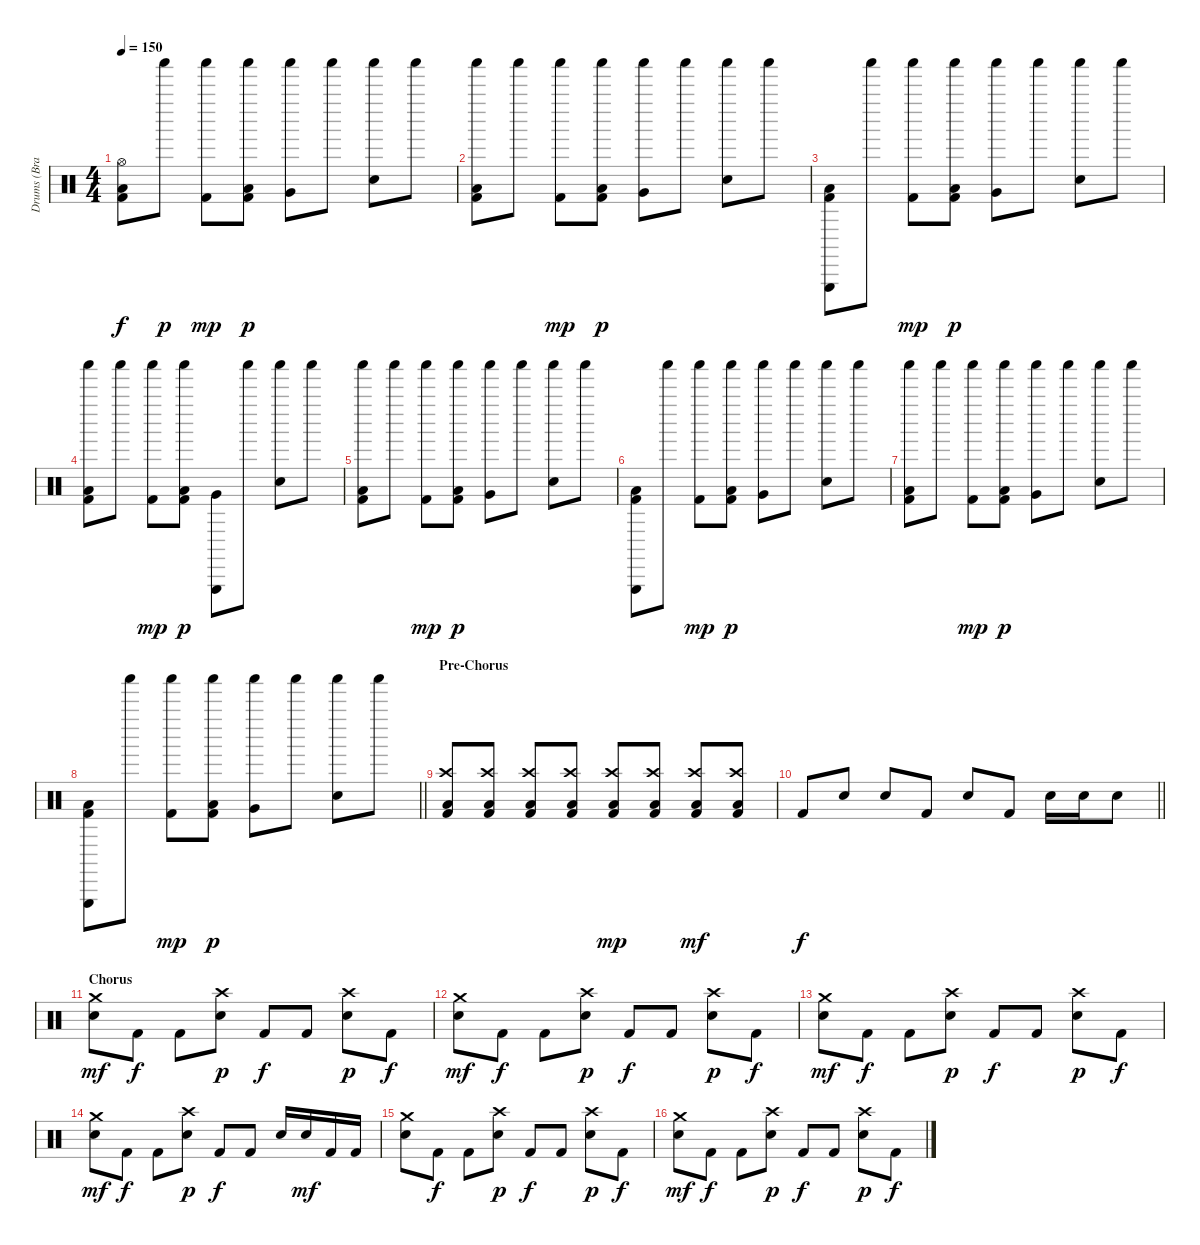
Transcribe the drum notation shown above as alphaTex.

\track ("Drums (Brandon Saller)" "Drums (Bra") {instrument percussion}
\staff {score}
\articulation defaults
\ts (4 4)
\tempo 150
\clef neutral
\ks c
("Hi-Hat (open)" "Low Tom (hit)" "Kick (hit) 2").8{dy f} "Shaker (hit)".8{dy p} ("Shaker (hit)" "Kick (hit) 2").8{dy mp} ("Shaker (hit)" "Low Tom (hit)" "Kick (hit) 2").8{dy p} ("Shaker (hit)" "Very Low Tom (hit)").8 "Shaker (hit)".8 ("Shaker (hit)" "Snare (hit) 2").8 "Shaker (hit)".8 |
("Shaker (hit)" "Low Tom (hit)" "Kick (hit) 2").8 "Shaker (hit)".8 ("Shaker (hit)" "Kick (hit) 2").8{dy mp} ("Shaker (hit)" "Low Tom (hit)" "Kick (hit) 2").8{dy p} ("Shaker (hit)" "Very Low Tom (hit)").8 "Shaker (hit)".8 ("Shaker (hit)" "Snare (hit) 2").8 "Shaker (hit)".8 |
("Triangle (hit)" "Low Tom (hit)" "Kick (hit) 2").8 "Shaker (hit)".8 ("Shaker (hit)" "Kick (hit) 2").8{dy mp} ("Shaker (hit)" "Low Tom (hit)" "Kick (hit) 2").8{dy p} ("Shaker (hit)" "Very Low Tom (hit)").8 "Shaker (hit)".8 ("Shaker (hit)" "Snare (hit) 2").8 "Shaker (hit)".8 |
("Shaker (hit)" "Low Tom (hit)" "Kick (hit) 2").8 "Shaker (hit)".8 ("Shaker (hit)" "Kick (hit) 2").8{dy mp} ("Shaker (hit)" "Low Tom (hit)" "Kick (hit) 2").8{dy p} ("Triangle (hit)" "Very Low Tom (hit)").8 "Shaker (hit)".8 ("Shaker (hit)" "Snare (hit) 2").8 "Shaker (hit)".8 |
("Shaker (hit)" "Low Tom (hit)" "Kick (hit) 2").8 "Shaker (hit)".8 ("Shaker (hit)" "Kick (hit) 2").8{dy mp} ("Shaker (hit)" "Low Tom (hit)" "Kick (hit) 2").8{dy p} ("Shaker (hit)" "Very Low Tom (hit)").8 "Shaker (hit)".8 ("Shaker (hit)" "Snare (hit) 2").8 "Shaker (hit)".8 |
("Triangle (hit)" "Low Tom (hit)" "Kick (hit) 2").8 "Shaker (hit)".8 ("Shaker (hit)" "Kick (hit) 2").8{dy mp} ("Shaker (hit)" "Low Tom (hit)" "Kick (hit) 2").8{dy p} ("Shaker (hit)" "Very Low Tom (hit)").8 "Shaker (hit)".8 ("Shaker (hit)" "Snare (hit) 2").8 "Shaker (hit)".8 |
("Shaker (hit)" "Low Tom (hit)" "Kick (hit) 2").8 "Shaker (hit)".8 ("Shaker (hit)" "Kick (hit) 2").8{dy mp} ("Shaker (hit)" "Low Tom (hit)" "Kick (hit) 2").8{dy p} ("Shaker (hit)" "Very Low Tom (hit)").8 "Shaker (hit)".8 ("Shaker (hit)" "Snare (hit) 2").8 "Shaker (hit)".8 |
\barLineRight lightlight
("Triangle (hit)" "Low Tom (hit)" "Kick (hit) 2").8 "Shaker (hit)".8 ("Shaker (hit)" "Kick (hit) 2").8{dy mp} ("Shaker (hit)" "Low Tom (hit)" "Kick (hit) 2").8{dy p} ("Shaker (hit)" "Very Low Tom (hit)").8 "Shaker (hit)".8 ("Shaker (hit)" "Snare (hit) 2").8 "Shaker (hit)".8 |
\section ("" "Pre-Chorus")
("Crash high (hit)" "Low Floor Tom (hit)" "Kick (hit) 2").8 ("Crash high (hit)" "Low Floor Tom (hit)" "Kick (hit) 2").8 ("Crash high (hit)" "Low Floor Tom (hit)" "Kick (hit) 2").8 ("Crash high (hit)" "Low Floor Tom (hit)" "Kick (hit) 2").8 ("Crash high (hit)" "Low Floor Tom (hit)" "Kick (hit) 2").8{dy mp} ("Crash high (hit)" "Low Floor Tom (hit)" "Kick (hit) 2").8 ("Crash high (hit)" "Low Floor Tom (hit)" "Kick (hit) 2").8{dy mf} ("Crash high (hit)" "Low Floor Tom (hit)" "Kick (hit) 2").8 |
\barLineRight lightlight "Kick (hit) 2".8{dy f} "Electric Snare (hit)".8 "Electric Snare (hit)".8 "Kick (hit) 2".8 "Electric Snare (hit)".8 "Kick (hit) 2".8 "Electric Snare (hit)".16 "Electric Snare (hit)".16 "Electric Snare (hit)".8
|
\section ("" "Chorus")
("Crash medium (hit)" "Electric Snare (hit)").8{dy mf} "Kick (hit) 2".8{dy f} "Kick (hit) 2".8 ("Crash high (hit)" "Electric Snare (hit)").8{dy p} "Kick (hit) 2".8{dy f} "Kick (hit) 2".8 ("Crash high (hit)" "Electric Snare (hit)").8{dy p} "Kick (hit) 2".8{dy f} |
("Crash medium (hit)" "Electric Snare (hit)").8{dy mf} "Kick (hit) 2".8{dy f} "Kick (hit) 2".8 ("Crash high (hit)" "Electric Snare (hit)").8{dy p} "Kick (hit) 2".8{dy f} "Kick (hit) 2".8 ("Crash high (hit)" "Electric Snare (hit)").8{dy p} "Kick (hit) 2".8{dy f} |
("Crash medium (hit)" "Electric Snare (hit)").8{dy mf} "Kick (hit) 2".8{dy f} "Kick (hit) 2".8 ("Crash high (hit)" "Electric Snare (hit)").8{dy p} "Kick (hit) 2".8{dy f} "Kick (hit) 2".8 ("Crash high (hit)" "Electric Snare (hit)").8{dy p} "Kick (hit) 2".8{dy f} |
("Crash medium (hit)" "Electric Snare (hit)").8{dy mf} "Kick (hit) 2".8{dy f} "Kick (hit) 2".8 ("Crash high (hit)" "Electric Snare (hit)").8{dy p} "Kick (hit) 2".8{dy f} "Kick (hit) 2".8 "Electric Snare (hit)".16 "Electric Snare (hit)".16{dy mf} "Kick (hit) 2".16 "Kick (hit) 2".16 |
("Crash medium (hit)" "Electric Snare (hit)").8 "Kick (hit) 2".8{dy f} "Kick (hit) 2".8 ("Crash high (hit)" "Electric Snare (hit)").8{dy p} "Kick (hit) 2".8{dy f} "Kick (hit) 2".8 ("Crash high (hit)" "Electric Snare (hit)").8{dy p} "Kick (hit) 2".8{dy f} |
("Crash medium (hit)" "Electric Snare (hit)").8{dy mf} "Kick (hit) 2".8{dy f} "Kick (hit) 2".8 ("Crash high (hit)" "Electric Snare (hit)").8{dy p} "Kick (hit) 2".8{dy f} "Kick (hit) 2".8 ("Crash high (hit)" "Electric Snare (hit)").8{dy p} "Kick (hit) 2".8{dy f}
